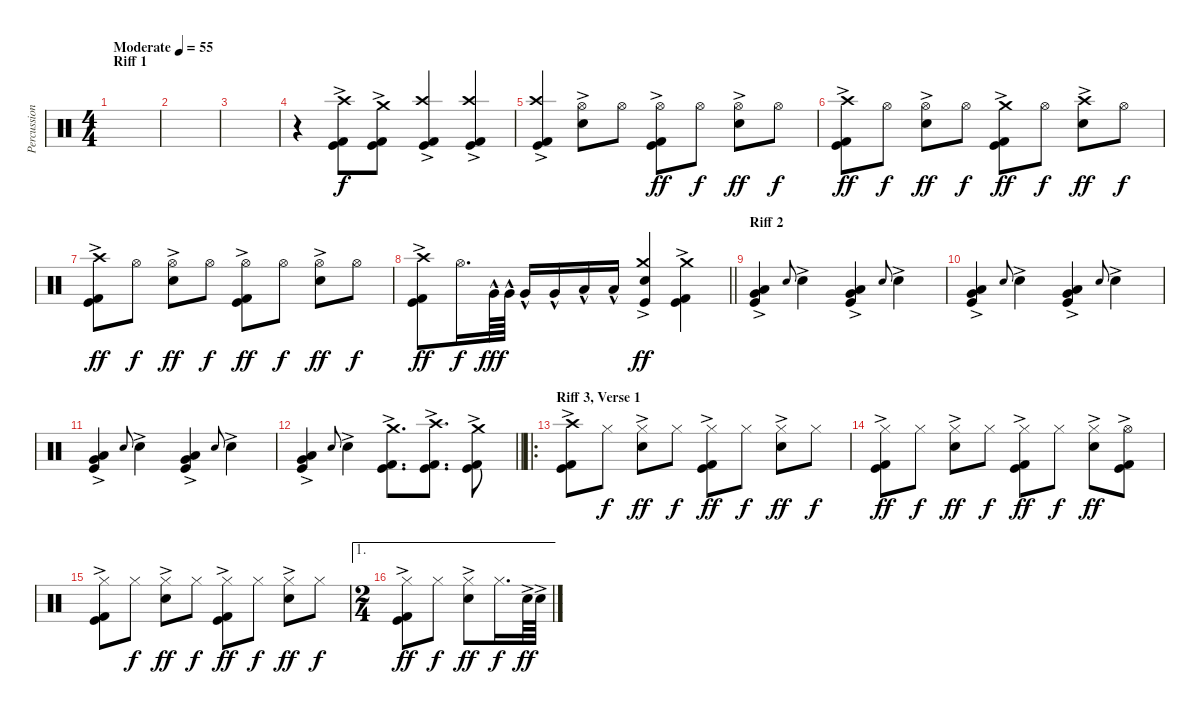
\track ("Percussion" "Percussion") {instrument percussion}
\staff {score}
\articulation defaults
\ts (4 4)
\section ("" "Riff 1")
\tempo (55 "Moderate")
\clef neutral
\ks c
|
|
|
r.4 ("Kick (hit)"{ac} "Crash high (hit)" "Kick (hit) 2"{ac}).8 ("Kick (hit)"{ac} "Crash medium (hit)" "Kick (hit) 2"{ac}).8 ("Kick (hit)"{ac} "Crash high (hit)" "Kick (hit) 2"{ac}).4 ("Kick (hit)"{ac} "Crash high (hit)" "Kick (hit) 2"{ac}).4 |
("Kick (hit)"{ac} "Crash high (hit)" "Kick (hit) 2"{ac}).4 ("Snare (hit) 2"{ac} "Hi-Hat (open)").8 "Hi-Hat (open)".8{dy f} ("Kick (hit)"{ac} "Hi-Hat (open)" "Kick (hit) 2"{ac}).8{dy ff} "Hi-Hat (open)".8{dy f} ("Snare (hit) 2"{ac} "Hi-Hat (open)").8{dy ff} "Hi-Hat (open)".8{dy f} |
("Kick (hit)"{ac} "Crash high (hit)" "Kick (hit) 2"{ac}).8{dy ff} "Hi-Hat (open)".8{dy f} ("Snare (hit) 2"{ac} "Hi-Hat (open)").8{dy ff} "Hi-Hat (open)".8{dy f} ("Kick (hit)"{ac} "Crash medium (hit)" "Kick (hit) 2"{ac}).8{dy ff} "Hi-Hat (open)".8{dy f} ("Snare (hit) 2"{ac} "Crash high (hit)").8{dy ff} "Hi-Hat (open)".8{dy f} |
("Kick (hit)"{ac} "Crash high (hit)" "Kick (hit) 2"{ac}).8{dy ff} "Hi-Hat (open)".8{dy f} ("Snare (hit) 2"{ac} "Hi-Hat (open)").8{dy ff} "Hi-Hat (open)".8{dy f} ("Kick (hit)"{ac} "Hi-Hat (open)" "Kick (hit) 2"{ac}).8{dy ff} "Hi-Hat (open)".8{dy f} ("Snare (hit) 2"{ac} "Hi-Hat (open)").8{dy ff} "Hi-Hat (open)".8{dy f} |
\barLineRight lightlight
("Kick (hit)"{ac} "Crash high (hit)" "Kick (hit) 2"{ac}).8{dy ff} "Hi-Hat (open)".16{d dy f} "Very Low Tom (hit)"{hac}.64{dy fff} "Very Low Tom (hit)"{hac}.64 "Very Low Tom (hit)"{hac}.16 "Very Low Tom (hit)"{hac}.16 "Low Tom (hit)"{hac}.16 "Low Tom (hit)"{hac}.16 ("Kick (hit)"{ac} "Crash medium (hit)" "Snare (hit) 2"{ac}).4{dy ff} ("Kick (hit)"{ac} "Crash medium (hit)" "Kick (hit) 2"{ac}).4 |
\section ("" "Riff 2")
("Low Floor Tom (hit)"{ac} "Very Low Tom (hit)"{ac} "Kick (hit)"{ac}).4 "Snare (hit) 2"{h}.8{gr onbeat} "Snare (hit) 2"{ac}.4 ("Low Floor Tom (hit)"{ac} "Very Low Tom (hit)"{ac} "Kick (hit)"{ac}).4 "Snare (hit) 2".8{gr onbeat} "Snare (hit) 2"{ac}.4 |
("Low Floor Tom (hit)"{ac} "Very Low Tom (hit)"{ac} "Kick (hit)"{ac}).4 "Snare (hit) 2".8{gr onbeat} "Snare (hit) 2"{ac}.4 ("Low Floor Tom (hit)"{ac} "Very Low Tom (hit)"{ac} "Kick (hit)"{ac}).4 "Snare (hit) 2".8{gr onbeat} "Snare (hit) 2"{ac}.4 |
("Low Floor Tom (hit)"{ac} "Very Low Tom (hit)"{ac} "Kick (hit)"{ac}).4 "Snare (hit) 2"{h}.8{gr onbeat} "Snare (hit) 2"{ac}.4 ("Low Floor Tom (hit)"{ac} "Very Low Tom (hit)"{ac} "Kick (hit)"{ac}).4 "Snare (hit) 2".8{gr onbeat} "Snare (hit) 2"{ac}.4 |
\barLineRight lightlight
("Low Floor Tom (hit)"{ac} "Very Low Tom (hit)"{ac} "Kick (hit)"{ac}).4 "Snare (hit) 2".8{gr onbeat} "Snare (hit) 2"{ac}.4 ("Crash medium (hit)" "Kick (hit)"{ac} "Kick (hit) 2"{ac}).8{d} ("Crash high (hit)" "Kick (hit)"{ac} "Kick (hit) 2"{ac}).8{d} ("Crash medium (hit)" "Kick (hit)"{ac} "Kick (hit) 2"{ac}).8 |
\ro
\section ("" "Riff 3, Verse 1")
("Kick (hit)"{ac} "Kick (hit) 2"{ac} "Crash high (hit)").8 "Hi-Hat (closed)".8{dy f} ("Snare (hit) 2"{ac} "Hi-Hat (closed)").8{dy ff} "Hi-Hat (closed)".8{dy f} ("Kick (hit)"{ac} "Kick (hit) 2"{ac} "Hi-Hat (closed)").8{dy ff} "Hi-Hat (closed)".8{dy f} ("Snare (hit) 2"{ac} "Hi-Hat (closed)").8{dy ff} "Hi-Hat (closed)".8{dy f} |
("Kick (hit)"{ac} "Kick (hit) 2"{ac} "Hi-Hat (closed)").8{dy ff} "Hi-Hat (closed)".8{dy f} ("Snare (hit) 2"{ac} "Hi-Hat (closed)").8{dy ff} "Hi-Hat (closed)".8{dy f} ("Kick (hit)"{ac} "Kick (hit) 2"{ac} "Hi-Hat (closed)").8{dy ff} "Hi-Hat (closed)".8{dy f} ("Snare (hit) 2"{ac} "Hi-Hat (closed)").8{dy ff} ("Kick (hit)"{ac} "Kick (hit) 2"{ac} "Hi-Hat (open)").8 |
("Kick (hit)"{ac} "Kick (hit) 2"{ac} "Hi-Hat (closed)").8 "Hi-Hat (closed)".8{dy f} ("Snare (hit) 2"{ac} "Hi-Hat (closed)").8{dy ff} "Hi-Hat (closed)".8{dy f} ("Kick (hit)"{ac} "Kick (hit) 2"{ac} "Hi-Hat (closed)").8{dy ff} "Hi-Hat (closed)".8{dy f} ("Snare (hit) 2"{ac} "Hi-Hat (closed)").8{dy ff} "Hi-Hat (closed)".8{dy f} |
\ae 1
\ts (2 4)
("Kick (hit)"{ac} "Kick (hit) 2"{ac} "Hi-Hat (closed)").8{dy ff} "Hi-Hat (closed)".8{dy f} ("Snare (hit) 2"{ac} "Hi-Hat (closed)").8{dy ff} "Hi-Hat (closed)".16{d dy f} "Snare (hit) 2"{ac}.64{dy ff} "Snare (hit) 2"{ac}.64
